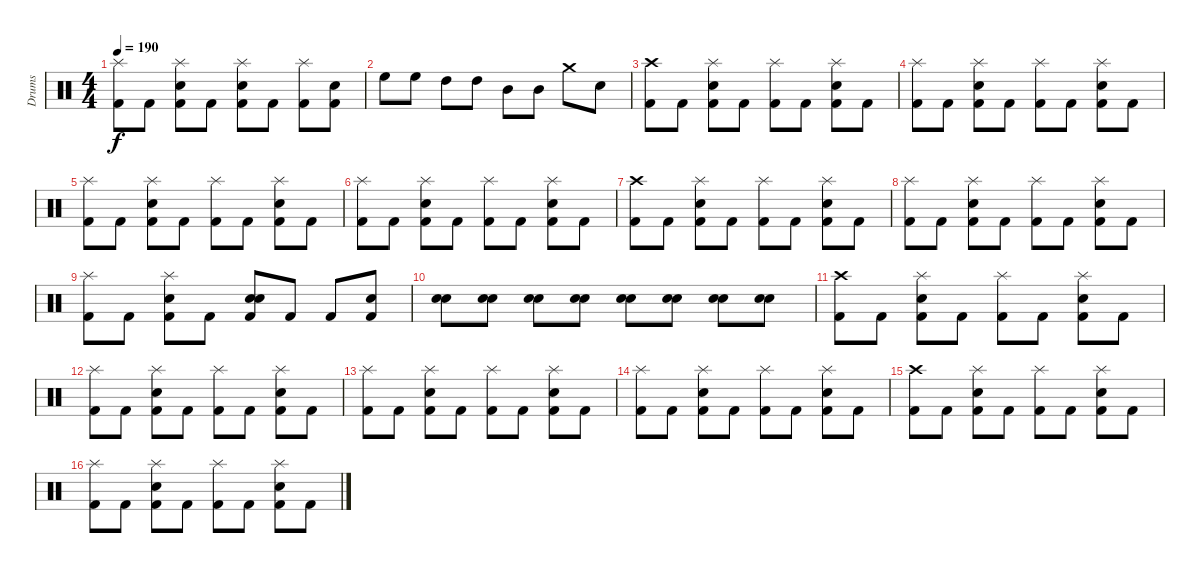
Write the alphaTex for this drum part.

\track ("Drums" "Drums") {instrument percussion}
\staff {score}
\articulation defaults
\ts (4 4)
\tempo 190
\clef neutral
\ks c
("Splash (hit)" "Kick (hit) 2").8{dy f} "Kick (hit) 2".8 ("Splash (hit)" "Snare (hit) 2" "Kick (hit) 2").8 "Kick (hit) 2".8 ("Splash (hit)" "Snare (hit) 2" "Kick (hit) 2").8 "Kick (hit) 2".8 ("Splash (hit)" "Kick (hit) 2").8 ("Snare (hit) 2" "Kick (hit) 2").8 |
"High Floor Tom (hit)".8 "High Floor Tom (hit)".8 "High Tom (hit)".8 "High Tom (hit)".8 "Mid Tom (hit)".8 "Mid Tom (hit)".8 "Crash medium (hit)".8 "Snare (hit) 2".8 |
("Crash high (hit)" "Kick (hit) 2").8 "Kick (hit) 2".8 ("Splash (hit)" "Snare (hit) 2" "Kick (hit) 2").8 "Kick (hit) 2".8 ("Splash (hit)" "Kick (hit) 2").8 "Kick (hit) 2".8 ("Splash (hit)" "Snare (hit) 2" "Kick (hit) 2").8 "Kick (hit) 2".8 |
("Splash (hit)" "Kick (hit) 2").8 "Kick (hit) 2".8 ("Splash (hit)" "Snare (hit) 2" "Kick (hit) 2").8 "Kick (hit) 2".8 ("Splash (hit)" "Kick (hit) 2").8 "Kick (hit) 2".8 ("Splash (hit)" "Snare (hit) 2" "Kick (hit) 2").8 "Kick (hit) 2".8 |
("Splash (hit)" "Kick (hit) 2").8 "Kick (hit) 2".8 ("Splash (hit)" "Snare (hit) 2" "Kick (hit) 2").8 "Kick (hit) 2".8 ("Splash (hit)" "Kick (hit) 2").8 "Kick (hit) 2".8 ("Splash (hit)" "Snare (hit) 2" "Kick (hit) 2").8 "Kick (hit) 2".8 |
("Splash (hit)" "Kick (hit) 2").8 "Kick (hit) 2".8 ("Splash (hit)" "Snare (hit) 2" "Kick (hit) 2").8 "Kick (hit) 2".8 ("Splash (hit)" "Kick (hit) 2").8 "Kick (hit) 2".8 ("Splash (hit)" "Snare (hit) 2" "Kick (hit) 2").8 "Kick (hit) 2".8 |
("Crash high (hit)" "Kick (hit) 2").8 "Kick (hit) 2".8 ("Splash (hit)" "Snare (hit) 2" "Kick (hit) 2").8 "Kick (hit) 2".8 ("Splash (hit)" "Kick (hit) 2").8 "Kick (hit) 2".8 ("Splash (hit)" "Snare (hit) 2" "Kick (hit) 2").8 "Kick (hit) 2".8 |
("Splash (hit)" "Kick (hit) 2").8 "Kick (hit) 2".8 ("Splash (hit)" "Snare (hit) 2" "Kick (hit) 2").8 "Kick (hit) 2".8 ("Splash (hit)" "Kick (hit) 2").8 "Kick (hit) 2".8 ("Splash (hit)" "Snare (hit) 2" "Kick (hit) 2").8 "Kick (hit) 2".8 |
("Splash (hit)" "Kick (hit) 2").8 "Kick (hit) 2".8 ("Splash (hit)" "Snare (hit) 2" "Kick (hit) 2").8 "Kick (hit) 2".8 ("Snare (hit) 2" "Snare (hit) 2" "Kick (hit) 2").8 "Kick (hit) 2".8 "Kick (hit) 2".8 ("Snare (hit) 2" "Kick (hit) 2").8 |
("Snare (hit) 2" "Snare (hit) 2").8 ("Snare (hit) 2" "Snare (hit) 2").8 ("Snare (hit) 2" "Snare (hit) 2").8 ("Snare (hit) 2" "Snare (hit) 2").8 ("Snare (hit) 2" "Snare (hit) 2").8 ("Snare (hit) 2" "Snare (hit) 2").8 ("Snare (hit) 2" "Snare (hit) 2").8 ("Snare (hit) 2" "Snare (hit) 2").8 |
("Crash high (hit)" "Kick (hit) 2").8 "Kick (hit) 2".8 ("Splash (hit)" "Snare (hit) 2" "Kick (hit) 2").8 "Kick (hit) 2".8 ("Splash (hit)" "Kick (hit) 2").8 "Kick (hit) 2".8 ("Splash (hit)" "Snare (hit) 2" "Kick (hit) 2").8 "Kick (hit) 2".8 |
("Splash (hit)" "Kick (hit) 2").8 "Kick (hit) 2".8 ("Splash (hit)" "Snare (hit) 2" "Kick (hit) 2").8 "Kick (hit) 2".8 ("Splash (hit)" "Kick (hit) 2").8 "Kick (hit) 2".8 ("Splash (hit)" "Snare (hit) 2" "Kick (hit) 2").8 "Kick (hit) 2".8 |
("Splash (hit)" "Kick (hit) 2").8 "Kick (hit) 2".8 ("Splash (hit)" "Snare (hit) 2" "Kick (hit) 2").8 "Kick (hit) 2".8 ("Splash (hit)" "Kick (hit) 2").8 "Kick (hit) 2".8 ("Splash (hit)" "Snare (hit) 2" "Kick (hit) 2").8 "Kick (hit) 2".8 |
("Splash (hit)" "Kick (hit) 2").8 "Kick (hit) 2".8 ("Splash (hit)" "Snare (hit) 2" "Kick (hit) 2").8 "Kick (hit) 2".8 ("Splash (hit)" "Kick (hit) 2").8 "Kick (hit) 2".8 ("Splash (hit)" "Snare (hit) 2" "Kick (hit) 2").8 "Kick (hit) 2".8 |
("Crash high (hit)" "Kick (hit) 2").8 "Kick (hit) 2".8 ("Splash (hit)" "Snare (hit) 2" "Kick (hit) 2").8 "Kick (hit) 2".8 ("Splash (hit)" "Kick (hit) 2").8 "Kick (hit) 2".8 ("Splash (hit)" "Snare (hit) 2" "Kick (hit) 2").8 "Kick (hit) 2".8 |
("Splash (hit)" "Kick (hit) 2").8 "Kick (hit) 2".8 ("Splash (hit)" "Snare (hit) 2" "Kick (hit) 2").8 "Kick (hit) 2".8 ("Splash (hit)" "Kick (hit) 2").8 "Kick (hit) 2".8 ("Splash (hit)" "Snare (hit) 2" "Kick (hit) 2").8 "Kick (hit) 2".8
